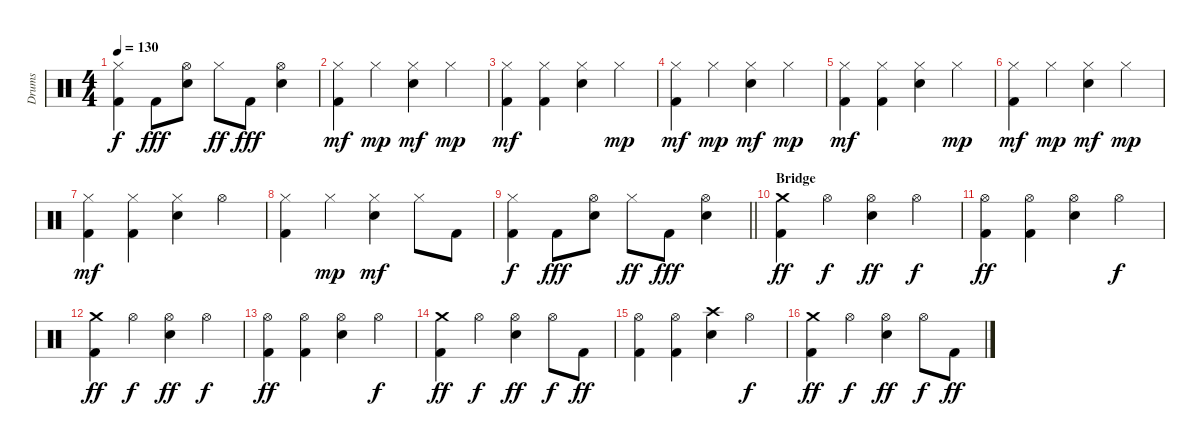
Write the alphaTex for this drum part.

\track ("Drums" "Drums") {instrument percussion}
\staff {score}
\articulation defaults
\ts (4 4)
\tempo 130
\clef neutral
\ks c
("Hi-Hat (closed)" "Kick (hit) 2").4{dy f} "Kick (hit) 2".8{dy fff} ("Hi-Hat (open)" "Snare (hit) 2").8 "Hi-Hat (closed)".8{dy ff} "Kick (hit) 2".8{dy fff} ("Hi-Hat (open)" "Snare (hit) 2").4 |
("Hi-Hat (closed)" "Kick (hit) 2").4{dy mf} "Hi-Hat (closed)".4{dy mp} ("Hi-Hat (closed)" "Snare (hit) 2").4{dy mf} "Hi-Hat (closed)".4{dy mp} |
("Hi-Hat (closed)" "Kick (hit) 2").4{dy mf} ("Hi-Hat (closed)" "Kick (hit) 2").4 ("Hi-Hat (closed)" "Snare (hit) 2").4 "Hi-Hat (closed)".4{dy mp} |
("Hi-Hat (closed)" "Kick (hit) 2").4{dy mf} "Hi-Hat (closed)".4{dy mp} ("Hi-Hat (closed)" "Snare (hit) 2").4{dy mf} "Hi-Hat (closed)".4{dy mp} |
("Hi-Hat (closed)" "Kick (hit) 2").4{dy mf} ("Hi-Hat (closed)" "Kick (hit) 2").4 ("Hi-Hat (closed)" "Snare (hit) 2").4 "Hi-Hat (closed)".4{dy mp} |
("Hi-Hat (closed)" "Kick (hit) 2").4{dy mf} "Hi-Hat (closed)".4{dy mp} ("Hi-Hat (closed)" "Snare (hit) 2").4{dy mf} "Hi-Hat (closed)".4{dy mp} |
("Hi-Hat (closed)" "Kick (hit) 2").4{dy mf} ("Hi-Hat (closed)" "Kick (hit) 2").4 ("Hi-Hat (closed)" "Snare (hit) 2").4 "Hi-Hat (open)".4 |
("Hi-Hat (closed)" "Kick (hit) 2").4 "Hi-Hat (closed)".4{dy mp} ("Hi-Hat (closed)" "Snare (hit) 2").4{dy mf} "Hi-Hat (closed)".8 "Kick (hit) 2".8 |
\barLineRight lightlight
("Hi-Hat (closed)" "Kick (hit) 2").4{dy f} "Kick (hit) 2".8{dy fff} ("Hi-Hat (open)" "Snare (hit) 2").8 "Hi-Hat (closed)".8{dy ff} "Kick (hit) 2".8{dy fff} ("Hi-Hat (open)" "Snare (hit) 2").4 |
\section ("" "Bridge")
("Crash medium (hit)" "Kick (hit) 2").4{dy ff} "Hi-Hat (open)".4{dy f} ("Hi-Hat (open)" "Snare (hit) 2").4{dy ff} "Hi-Hat (open)".4{dy f} |
("Hi-Hat (open)" "Kick (hit) 2").4{dy ff} ("Hi-Hat (open)" "Kick (hit) 2").4 ("Hi-Hat (open)" "Snare (hit) 2").4 "Hi-Hat (open)".4{dy f} |
("Crash medium (hit)" "Kick (hit) 2").4{dy ff} "Hi-Hat (open)".4{dy f} ("Hi-Hat (open)" "Snare (hit) 2").4{dy ff} "Hi-Hat (open)".4{dy f} |
("Hi-Hat (open)" "Kick (hit) 2").4{dy ff} ("Hi-Hat (open)" "Kick (hit) 2").4 ("Hi-Hat (open)" "Snare (hit) 2").4 "Hi-Hat (open)".4{dy f} |
("Crash medium (hit)" "Kick (hit) 2").4{dy ff} "Hi-Hat (open)".4{dy f} ("Hi-Hat (open)" "Snare (hit) 2").4{dy ff} "Hi-Hat (open)".8{dy f} "Kick (hit) 2".8{dy ff} |
("Hi-Hat (open)" "Kick (hit) 2").4 ("Hi-Hat (open)" "Kick (hit) 2").4 ("Crash high (hit)" "Snare (hit) 2").4 "Hi-Hat (open)".4{dy f} |
("Crash medium (hit)" "Kick (hit) 2").4{dy ff} "Hi-Hat (open)".4{dy f} ("Hi-Hat (open)" "Snare (hit) 2").4{dy ff} "Hi-Hat (open)".8{dy f} "Kick (hit) 2".8{dy ff}
